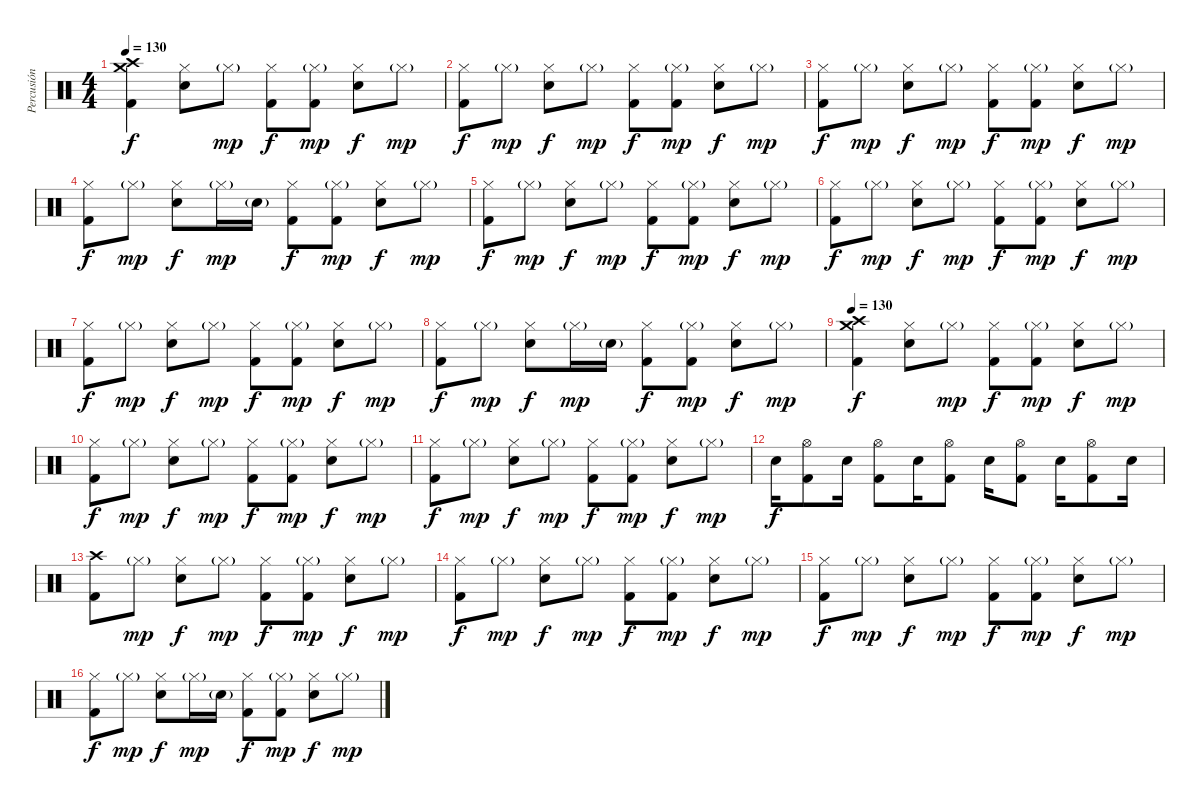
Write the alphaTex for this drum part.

\track ("Percusión" "Percusión") {instrument percussion}
\staff {score}
\articulation defaults
\ts (4 4)
\tempo 130
\clef neutral
\ks c
("Crash high (hit)" "Crash medium (hit)" "Kick (hit) 2").4{dy f} ("Hi-Hat (closed)" "Snare (hit) 2").8 "Hi-Hat (closed)"{g}.8{dy mp} ("Hi-Hat (closed)" "Kick (hit) 2").8{dy f} ("Hi-Hat (closed)"{g} "Kick (hit) 2").8{dy mp} ("Hi-Hat (closed)" "Snare (hit) 2").8{dy f} "Hi-Hat (closed)"{g}.8{dy mp} |
("Hi-Hat (closed)" "Kick (hit) 2").8{dy f} "Hi-Hat (closed)"{g}.8{dy mp} ("Hi-Hat (closed)" "Snare (hit) 2").8{dy f} "Hi-Hat (closed)"{g}.8{dy mp} ("Hi-Hat (closed)" "Kick (hit) 2").8{dy f} ("Hi-Hat (closed)"{g} "Kick (hit) 2").8{dy mp} ("Hi-Hat (closed)" "Snare (hit) 2").8{dy f} "Hi-Hat (closed)"{g}.8{dy mp} |
("Hi-Hat (closed)" "Kick (hit) 2").8{dy f} "Hi-Hat (closed)"{g}.8{dy mp} ("Hi-Hat (closed)" "Snare (hit) 2").8{dy f} "Hi-Hat (closed)"{g}.8{dy mp} ("Hi-Hat (closed)" "Kick (hit) 2").8{dy f} ("Hi-Hat (closed)"{g} "Kick (hit) 2").8{dy mp} ("Hi-Hat (closed)" "Snare (hit) 2").8{dy f} "Hi-Hat (closed)"{g}.8{dy mp} |
("Hi-Hat (closed)" "Kick (hit) 2").8{dy f} "Hi-Hat (closed)"{g}.8{dy mp} ("Hi-Hat (closed)" "Snare (hit) 2").8{dy f} "Hi-Hat (closed)"{g}.16{dy mp} "Snare (hit) 2"{g}.16 ("Hi-Hat (closed)" "Kick (hit) 2").8{dy f} ("Hi-Hat (closed)"{g} "Kick (hit) 2").8{dy mp} ("Hi-Hat (closed)" "Snare (hit) 2").8{dy f} "Hi-Hat (closed)"{g}.8{dy mp} |
("Hi-Hat (closed)" "Kick (hit) 2").8{dy f} "Hi-Hat (closed)"{g}.8{dy mp} ("Hi-Hat (closed)" "Snare (hit) 2").8{dy f} "Hi-Hat (closed)"{g}.8{dy mp} ("Hi-Hat (closed)" "Kick (hit) 2").8{dy f} ("Hi-Hat (closed)"{g} "Kick (hit) 2").8{dy mp} ("Hi-Hat (closed)" "Snare (hit) 2").8{dy f} "Hi-Hat (closed)"{g}.8{dy mp} |
("Hi-Hat (closed)" "Kick (hit) 2").8{dy f} "Hi-Hat (closed)"{g}.8{dy mp} ("Hi-Hat (closed)" "Snare (hit) 2").8{dy f} "Hi-Hat (closed)"{g}.8{dy mp} ("Hi-Hat (closed)" "Kick (hit) 2").8{dy f} ("Hi-Hat (closed)"{g} "Kick (hit) 2").8{dy mp} ("Hi-Hat (closed)" "Snare (hit) 2").8{dy f} "Hi-Hat (closed)"{g}.8{dy mp} |
("Hi-Hat (closed)" "Kick (hit) 2").8{dy f} "Hi-Hat (closed)"{g}.8{dy mp} ("Hi-Hat (closed)" "Snare (hit) 2").8{dy f} "Hi-Hat (closed)"{g}.8{dy mp} ("Hi-Hat (closed)" "Kick (hit) 2").8{dy f} ("Hi-Hat (closed)"{g} "Kick (hit) 2").8{dy mp} ("Hi-Hat (closed)" "Snare (hit) 2").8{dy f} "Hi-Hat (closed)"{g}.8{dy mp} |
("Hi-Hat (closed)" "Kick (hit) 2").8{dy f} "Hi-Hat (closed)"{g}.8{dy mp} ("Hi-Hat (closed)" "Snare (hit) 2").8{dy f} "Hi-Hat (closed)"{g}.16{dy mp} "Snare (hit) 2"{g}.16 ("Hi-Hat (closed)" "Kick (hit) 2").8{dy f} ("Hi-Hat (closed)"{g} "Kick (hit) 2").8{dy mp} ("Hi-Hat (closed)" "Snare (hit) 2").8{dy f} "Hi-Hat (closed)"{g}.8{dy mp} |
\tempo 130
("Crash high (hit)" "Crash medium (hit)" "Kick (hit) 2").4{dy f} ("Hi-Hat (closed)" "Snare (hit) 2").8 "Hi-Hat (closed)"{g}.8{dy mp} ("Hi-Hat (closed)" "Kick (hit) 2").8{dy f} ("Hi-Hat (closed)"{g} "Kick (hit) 2").8{dy mp} ("Hi-Hat (closed)" "Snare (hit) 2").8{dy f} "Hi-Hat (closed)"{g}.8{dy mp} |
("Hi-Hat (closed)" "Kick (hit) 2").8{dy f} "Hi-Hat (closed)"{g}.8{dy mp} ("Hi-Hat (closed)" "Snare (hit) 2").8{dy f} "Hi-Hat (closed)"{g}.8{dy mp} ("Hi-Hat (closed)" "Kick (hit) 2").8{dy f} ("Hi-Hat (closed)"{g} "Kick (hit) 2").8{dy mp} ("Hi-Hat (closed)" "Snare (hit) 2").8{dy f} "Hi-Hat (closed)"{g}.8{dy mp} |
("Hi-Hat (closed)" "Kick (hit) 2").8{dy f} "Hi-Hat (closed)"{g}.8{dy mp} ("Hi-Hat (closed)" "Snare (hit) 2").8{dy f} "Hi-Hat (closed)"{g}.8{dy mp} ("Hi-Hat (closed)" "Kick (hit) 2").8{dy f} ("Hi-Hat (closed)"{g} "Kick (hit) 2").8{dy mp} ("Hi-Hat (closed)" "Snare (hit) 2").8{dy f} "Hi-Hat (closed)"{g}.8{dy mp} |
"Snare (hit) 2".16{dy f} ("Hi-Hat (open)" "Kick (hit) 2").8 "Snare (hit) 2".16 ("Hi-Hat (open)" "Kick (hit) 2").8 "Snare (hit) 2".16 ("Hi-Hat (open)" "Kick (hit) 2").8 "Snare (hit) 2".16 ("Hi-Hat (open)" "Kick (hit) 2").8 "Snare (hit) 2".16 ("Hi-Hat (open)" "Kick (hit) 2").8 "Snare (hit) 2".16 |
("Crash high (hit)" "Kick (hit) 2").8 "Hi-Hat (closed)"{g}.8{dy mp} ("Hi-Hat (closed)" "Snare (hit) 2").8{dy f} "Hi-Hat (closed)"{g}.8{dy mp} ("Hi-Hat (closed)" "Kick (hit) 2").8{dy f} ("Hi-Hat (closed)"{g} "Kick (hit) 2").8{dy mp} ("Hi-Hat (closed)" "Snare (hit) 2").8{dy f} "Hi-Hat (closed)"{g}.8{dy mp} |
("Hi-Hat (closed)" "Kick (hit) 2").8{dy f} "Hi-Hat (closed)"{g}.8{dy mp} ("Hi-Hat (closed)" "Snare (hit) 2").8{dy f} "Hi-Hat (closed)"{g}.8{dy mp} ("Hi-Hat (closed)" "Kick (hit) 2").8{dy f} ("Hi-Hat (closed)"{g} "Kick (hit) 2").8{dy mp} ("Hi-Hat (closed)" "Snare (hit) 2").8{dy f} "Hi-Hat (closed)"{g}.8{dy mp} |
("Hi-Hat (closed)" "Kick (hit) 2").8{dy f} "Hi-Hat (closed)"{g}.8{dy mp} ("Hi-Hat (closed)" "Snare (hit) 2").8{dy f} "Hi-Hat (closed)"{g}.8{dy mp} ("Hi-Hat (closed)" "Kick (hit) 2").8{dy f} ("Hi-Hat (closed)"{g} "Kick (hit) 2").8{dy mp} ("Hi-Hat (closed)" "Snare (hit) 2").8{dy f} "Hi-Hat (closed)"{g}.8{dy mp} |
("Hi-Hat (closed)" "Kick (hit) 2").8{dy f} "Hi-Hat (closed)"{g}.8{dy mp} ("Hi-Hat (closed)" "Snare (hit) 2").8{dy f} "Hi-Hat (closed)"{g}.16{dy mp} "Snare (hit) 2"{g}.16 ("Hi-Hat (closed)" "Kick (hit) 2").8{dy f} ("Hi-Hat (closed)"{g} "Kick (hit) 2").8{dy mp} ("Hi-Hat (closed)" "Snare (hit) 2").8{dy f} "Hi-Hat (closed)"{g}.8{dy mp}
